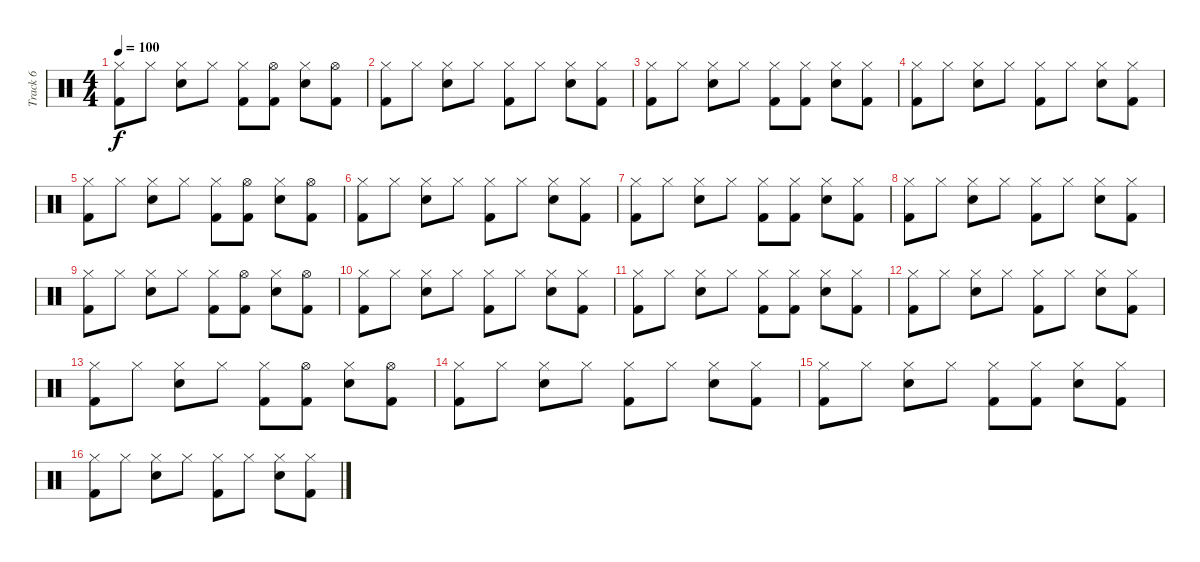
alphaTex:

\track ("Track 6" "Track 6") {instrument percussion}
\staff {score}
\articulation defaults
\ts (4 4)
\tempo 100
\clef neutral
\ks c
("Hi-Hat (closed)" "Kick (hit) 2").8{dy f} "Hi-Hat (closed)".8 ("Hi-Hat (closed)" "Electric Snare (hit)").8 "Hi-Hat (closed)".8 ("Hi-Hat (closed)" "Kick (hit) 2").8 ("Hi-Hat (open)" "Kick (hit) 2").8 ("Hi-Hat (closed)" "Electric Snare (hit)").8 ("Hi-Hat (open)" "Kick (hit) 2").8 |
("Hi-Hat (closed)" "Kick (hit) 2").8 "Hi-Hat (closed)".8 ("Hi-Hat (closed)" "Electric Snare (hit)").8 "Hi-Hat (closed)".8 ("Hi-Hat (closed)" "Kick (hit) 2").8 "Hi-Hat (closed)".8 ("Hi-Hat (closed)" "Electric Snare (hit)").8 ("Hi-Hat (closed)" "Kick (hit) 2").8 |
("Hi-Hat (closed)" "Kick (hit) 2").8 "Hi-Hat (closed)".8 ("Hi-Hat (closed)" "Electric Snare (hit)").8 "Hi-Hat (closed)".8 ("Hi-Hat (closed)" "Kick (hit) 2").8 ("Hi-Hat (closed)" "Kick (hit) 2").8 ("Hi-Hat (closed)" "Electric Snare (hit)").8 ("Hi-Hat (closed)" "Kick (hit) 2").8 |
("Hi-Hat (closed)" "Kick (hit) 2").8 "Hi-Hat (closed)".8 ("Hi-Hat (closed)" "Electric Snare (hit)").8 "Hi-Hat (closed)".8 ("Hi-Hat (closed)" "Kick (hit) 2").8 "Hi-Hat (closed)".8 ("Hi-Hat (closed)" "Electric Snare (hit)").8 ("Hi-Hat (closed)" "Kick (hit) 2").8 |
("Hi-Hat (closed)" "Kick (hit) 2").8 "Hi-Hat (closed)".8 ("Hi-Hat (closed)" "Electric Snare (hit)").8 "Hi-Hat (closed)".8 ("Hi-Hat (closed)" "Kick (hit) 2").8 ("Hi-Hat (open)" "Kick (hit) 2").8 ("Hi-Hat (closed)" "Electric Snare (hit)").8 ("Hi-Hat (open)" "Kick (hit) 2").8 |
("Hi-Hat (closed)" "Kick (hit) 2").8 "Hi-Hat (closed)".8 ("Hi-Hat (closed)" "Electric Snare (hit)").8 "Hi-Hat (closed)".8 ("Hi-Hat (closed)" "Kick (hit) 2").8 "Hi-Hat (closed)".8 ("Hi-Hat (closed)" "Electric Snare (hit)").8 ("Hi-Hat (closed)" "Kick (hit) 2").8 |
("Hi-Hat (closed)" "Kick (hit) 2").8 "Hi-Hat (closed)".8 ("Hi-Hat (closed)" "Electric Snare (hit)").8 "Hi-Hat (closed)".8 ("Hi-Hat (closed)" "Kick (hit) 2").8 ("Hi-Hat (closed)" "Kick (hit) 2").8 ("Hi-Hat (closed)" "Electric Snare (hit)").8 ("Hi-Hat (closed)" "Kick (hit) 2").8 |
("Hi-Hat (closed)" "Kick (hit) 2").8 "Hi-Hat (closed)".8 ("Hi-Hat (closed)" "Electric Snare (hit)").8 "Hi-Hat (closed)".8 ("Hi-Hat (closed)" "Kick (hit) 2").8 "Hi-Hat (closed)".8 ("Hi-Hat (closed)" "Electric Snare (hit)").8 ("Hi-Hat (closed)" "Kick (hit) 2").8 |
("Hi-Hat (closed)" "Kick (hit) 2").8 "Hi-Hat (closed)".8 ("Hi-Hat (closed)" "Electric Snare (hit)").8 "Hi-Hat (closed)".8 ("Hi-Hat (closed)" "Kick (hit) 2").8 ("Hi-Hat (open)" "Kick (hit) 2").8 ("Hi-Hat (closed)" "Electric Snare (hit)").8 ("Hi-Hat (open)" "Kick (hit) 2").8 |
("Hi-Hat (closed)" "Kick (hit) 2").8 "Hi-Hat (closed)".8 ("Hi-Hat (closed)" "Electric Snare (hit)").8 "Hi-Hat (closed)".8 ("Hi-Hat (closed)" "Kick (hit) 2").8 "Hi-Hat (closed)".8 ("Hi-Hat (closed)" "Electric Snare (hit)").8 ("Hi-Hat (closed)" "Kick (hit) 2").8 |
("Hi-Hat (closed)" "Kick (hit) 2").8 "Hi-Hat (closed)".8 ("Hi-Hat (closed)" "Electric Snare (hit)").8 "Hi-Hat (closed)".8 ("Hi-Hat (closed)" "Kick (hit) 2").8 ("Hi-Hat (closed)" "Kick (hit) 2").8 ("Hi-Hat (closed)" "Electric Snare (hit)").8 ("Hi-Hat (closed)" "Kick (hit) 2").8 |
("Hi-Hat (closed)" "Kick (hit) 2").8 "Hi-Hat (closed)".8 ("Hi-Hat (closed)" "Electric Snare (hit)").8 "Hi-Hat (closed)".8 ("Hi-Hat (closed)" "Kick (hit) 2").8 "Hi-Hat (closed)".8 ("Hi-Hat (closed)" "Electric Snare (hit)").8 ("Hi-Hat (closed)" "Kick (hit) 2").8 |
("Hi-Hat (closed)" "Kick (hit) 2").8 "Hi-Hat (closed)".8 ("Hi-Hat (closed)" "Electric Snare (hit)").8 "Hi-Hat (closed)".8 ("Hi-Hat (closed)" "Kick (hit) 2").8 ("Hi-Hat (open)" "Kick (hit) 2").8 ("Hi-Hat (closed)" "Electric Snare (hit)").8 ("Hi-Hat (open)" "Kick (hit) 2").8 |
("Hi-Hat (closed)" "Kick (hit) 2").8 "Hi-Hat (closed)".8 ("Hi-Hat (closed)" "Electric Snare (hit)").8 "Hi-Hat (closed)".8 ("Hi-Hat (closed)" "Kick (hit) 2").8 "Hi-Hat (closed)".8 ("Hi-Hat (closed)" "Electric Snare (hit)").8 ("Hi-Hat (closed)" "Kick (hit) 2").8 |
("Hi-Hat (closed)" "Kick (hit) 2").8 "Hi-Hat (closed)".8 ("Hi-Hat (closed)" "Electric Snare (hit)").8 "Hi-Hat (closed)".8 ("Hi-Hat (closed)" "Kick (hit) 2").8 ("Hi-Hat (closed)" "Kick (hit) 2").8 ("Hi-Hat (closed)" "Electric Snare (hit)").8 ("Hi-Hat (closed)" "Kick (hit) 2").8 |
("Hi-Hat (closed)" "Kick (hit) 2").8 "Hi-Hat (closed)".8 ("Hi-Hat (closed)" "Electric Snare (hit)").8 "Hi-Hat (closed)".8 ("Hi-Hat (closed)" "Kick (hit) 2").8 "Hi-Hat (closed)".8 ("Hi-Hat (closed)" "Electric Snare (hit)").8 ("Hi-Hat (closed)" "Kick (hit) 2").8
